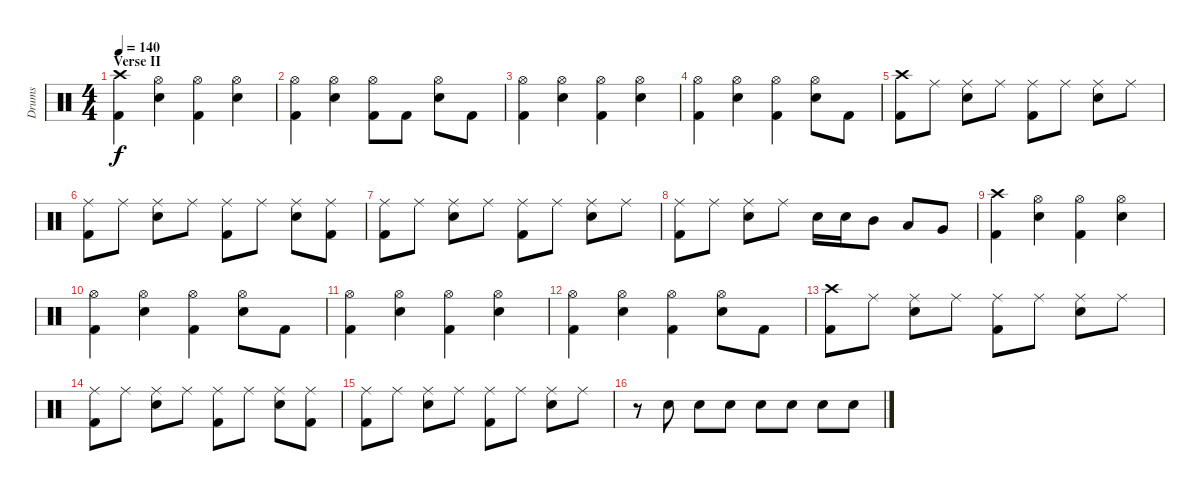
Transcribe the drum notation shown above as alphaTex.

\track ("Drums" "Drums") {instrument percussion}
\staff {score}
\articulation defaults
\ts (4 4)
\section ("" "Verse II")
\tempo 140
\clef neutral
\ks c
("Crash high (hit)" "Kick (hit) 2").4{dy f} ("Hi-Hat (open)" "Electric Snare (hit)").4 ("Hi-Hat (open)" "Kick (hit) 2").4 ("Hi-Hat (open)" "Electric Snare (hit)").4 |
("Hi-Hat (open)" "Kick (hit) 2").4 ("Hi-Hat (open)" "Electric Snare (hit)").4 ("Hi-Hat (open)" "Kick (hit) 2").8 "Kick (hit) 2".8 ("Hi-Hat (open)" "Electric Snare (hit)").8 "Kick (hit) 2".8 |
("Hi-Hat (open)" "Kick (hit) 2").4 ("Hi-Hat (open)" "Electric Snare (hit)").4 ("Hi-Hat (open)" "Kick (hit) 2").4 ("Hi-Hat (open)" "Electric Snare (hit)").4 |
("Hi-Hat (open)" "Kick (hit) 2").4 ("Hi-Hat (open)" "Electric Snare (hit)").4 ("Hi-Hat (open)" "Kick (hit) 2").4 ("Hi-Hat (open)" "Electric Snare (hit)").8 "Kick (hit) 2".8 |
("Crash high (hit)" "Kick (hit) 2").8 "Ride (middle)".8 ("Ride (middle)" "Electric Snare (hit)").8 "Ride (middle)".8 ("Ride (middle)" "Kick (hit) 2").8 "Ride (middle)".8 ("Ride (middle)" "Electric Snare (hit)").8 "Ride (middle)".8 |
("Ride (middle)" "Kick (hit) 2").8 "Ride (middle)".8 ("Ride (middle)" "Electric Snare (hit)").8 "Ride (middle)".8 ("Ride (middle)" "Kick (hit) 2").8 "Ride (middle)".8 ("Ride (middle)" "Electric Snare (hit)").8 ("Ride (middle)" "Kick (hit) 2").8 |
("Ride (middle)" "Kick (hit) 2").8 "Ride (middle)".8 ("Ride (middle)" "Electric Snare (hit)").8 "Ride (middle)".8 ("Ride (middle)" "Kick (hit) 2").8 "Ride (middle)".8 ("Ride (middle)" "Electric Snare (hit)").8 "Ride (middle)".8 |
("Ride (middle)" "Kick (hit) 2").8 "Ride (middle)".8 ("Ride (middle)" "Electric Snare (hit)").8 "Ride (middle)".8 "Electric Snare (hit)".16 "Electric Snare (hit)".16 "Mid Tom (hit)".8 "Low Tom (hit)".8 "Very Low Tom (hit)".8 |
("Crash high (hit)" "Kick (hit) 2").4 ("Hi-Hat (open)" "Electric Snare (hit)").4 ("Hi-Hat (open)" "Kick (hit) 2").4 ("Hi-Hat (open)" "Electric Snare (hit)").4 |
("Hi-Hat (open)" "Kick (hit) 2").4 ("Hi-Hat (open)" "Electric Snare (hit)").4 ("Hi-Hat (open)" "Kick (hit) 2").4 ("Hi-Hat (open)" "Electric Snare (hit)").8 "Kick (hit) 2".8 |
("Hi-Hat (open)" "Kick (hit) 2").4 ("Hi-Hat (open)" "Electric Snare (hit)").4 ("Hi-Hat (open)" "Kick (hit) 2").4 ("Hi-Hat (open)" "Electric Snare (hit)").4 |
("Hi-Hat (open)" "Kick (hit) 2").4 ("Hi-Hat (open)" "Electric Snare (hit)").4 ("Hi-Hat (open)" "Kick (hit) 2").4 ("Hi-Hat (open)" "Electric Snare (hit)").8 "Kick (hit) 2".8 |
("Crash high (hit)" "Kick (hit) 2").8 "Ride (middle)".8 ("Ride (middle)" "Electric Snare (hit)").8 "Ride (middle)".8 ("Ride (middle)" "Kick (hit) 2").8 "Ride (middle)".8 ("Ride (middle)" "Electric Snare (hit)").8 "Ride (middle)".8 |
("Ride (middle)" "Kick (hit) 2").8 "Ride (middle)".8 ("Ride (middle)" "Electric Snare (hit)").8 "Ride (middle)".8 ("Ride (middle)" "Kick (hit) 2").8 "Ride (middle)".8 ("Ride (middle)" "Electric Snare (hit)").8 ("Ride (middle)" "Kick (hit) 2").8 |
("Ride (middle)" "Kick (hit) 2").8 "Ride (middle)".8 ("Ride (middle)" "Electric Snare (hit)").8 "Ride (middle)".8 ("Ride (middle)" "Kick (hit) 2").8 "Ride (middle)".8 ("Ride (middle)" "Electric Snare (hit)").8 "Ride (middle)".8 |
r.8 "Electric Snare (hit)".8{volume 8} "Electric Snare (hit)".8{volume 9} "Electric Snare (hit)".8{volume 10} "Electric Snare (hit)".8{volume 11} "Electric Snare (hit)".8{volume 12} "Electric Snare (hit)".8{volume 13} "Electric Snare (hit)".8{volume 14}
